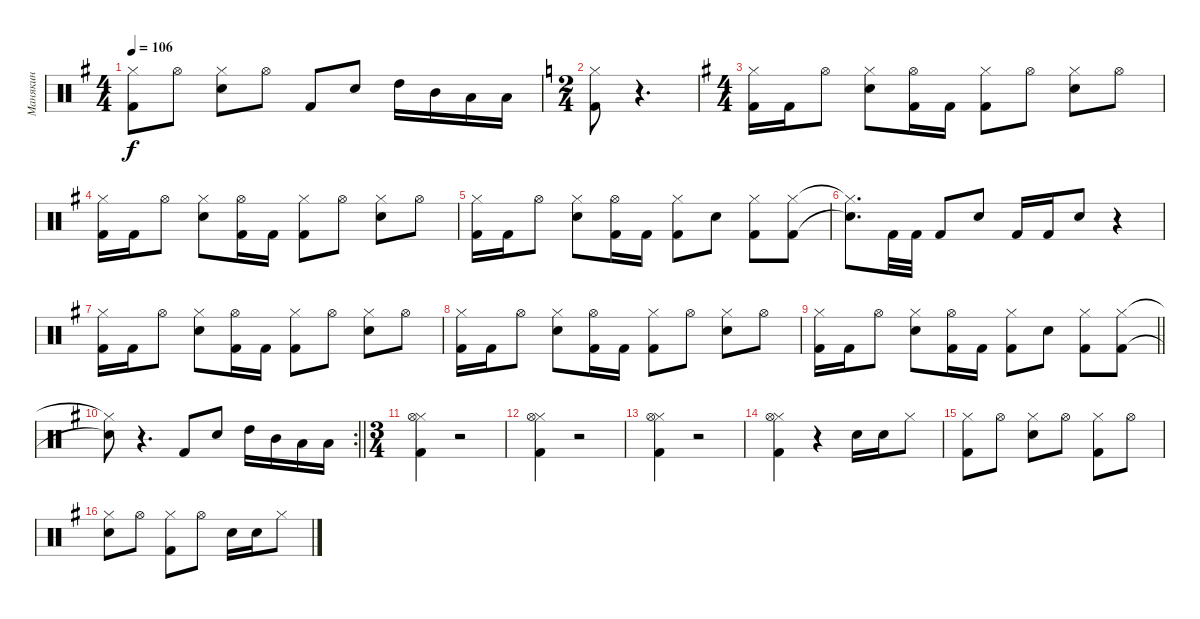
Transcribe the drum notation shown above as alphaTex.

\track ("Манякин" "Манякин") {instrument percussion}
\staff {score}
\articulation defaults
\ts (4 4)
\tempo 106
\clef neutral
\ks g
("Hi-Hat (closed)" "Kick (hit) 2").8{dy f} "Hi-Hat (open)".8 ("Hi-Hat (closed)" "Electric Snare (hit)").8 "Hi-Hat (open)".8 "Kick (hit) 2".8 "Electric Snare (hit)".8 "High Tom (hit)".16 "Mid Tom (hit)".16 "Low Tom (hit)".16 "Low Tom (hit)".16 |
\ts (2 4)
\ks c
("Hi-Hat (closed)" "Kick (hit) 2").8 r.4{d} |
\ts (4 4)
\ks g
("Hi-Hat (closed)" "Kick (hit) 2").16 "Kick (hit) 2".16 "Hi-Hat (open)".8 ("Hi-Hat (closed)" "Electric Snare (hit)").8 ("Kick (hit) 2" "Hi-Hat (open)").16 "Kick (hit) 2".16 ("Hi-Hat (closed)" "Kick (hit) 2").8 "Hi-Hat (open)".8 ("Hi-Hat (closed)" "Electric Snare (hit)").8 "Hi-Hat (open)".8 |
("Hi-Hat (closed)" "Kick (hit) 2").16 "Kick (hit) 2".16 "Hi-Hat (open)".8 ("Hi-Hat (closed)" "Electric Snare (hit)").8 ("Kick (hit) 2" "Hi-Hat (open)").16 "Kick (hit) 2".16 ("Hi-Hat (closed)" "Kick (hit) 2").8 "Hi-Hat (open)".8 ("Hi-Hat (closed)" "Electric Snare (hit)").8 "Hi-Hat (open)".8 |
("Hi-Hat (closed)" "Kick (hit) 2").16 "Kick (hit) 2".16 "Hi-Hat (open)".8 ("Hi-Hat (closed)" "Electric Snare (hit)").8 ("Kick (hit) 2" "Hi-Hat (open)").16 "Kick (hit) 2".16 ("Hi-Hat (closed)" "Kick (hit) 2").8 "Electric Snare (hit)".8 ("Hi-Hat (closed)" "Kick (hit) 2").8 ("Hi-Hat (closed)" "Kick (hit) 2").8 |
("Hi-Hat (closed)"{t} "Electric Snare (hit)"{t}).8{d} "Kick (hit) 2".32 "Kick (hit) 2".32 "Kick (hit) 2".8 "Electric Snare (hit)".8 "Kick (hit) 2".16 "Kick (hit) 2".16 "Electric Snare (hit)".8 r.4 |
("Hi-Hat (closed)" "Kick (hit) 2").16 "Kick (hit) 2".16 "Hi-Hat (open)".8 ("Hi-Hat (closed)" "Electric Snare (hit)").8 ("Kick (hit) 2" "Hi-Hat (open)").16 "Kick (hit) 2".16 ("Hi-Hat (closed)" "Kick (hit) 2").8 "Hi-Hat (open)".8 ("Hi-Hat (closed)" "Electric Snare (hit)").8 "Hi-Hat (open)".8 |
("Hi-Hat (closed)" "Kick (hit) 2").16 "Kick (hit) 2".16 "Hi-Hat (open)".8 ("Hi-Hat (closed)" "Electric Snare (hit)").8 ("Kick (hit) 2" "Hi-Hat (open)").16 "Kick (hit) 2".16 ("Hi-Hat (closed)" "Kick (hit) 2").8 "Hi-Hat (open)".8 ("Hi-Hat (closed)" "Electric Snare (hit)").8 "Hi-Hat (open)".8 |
\barLineRight lightlight
("Hi-Hat (closed)" "Kick (hit) 2").16 "Kick (hit) 2".16 "Hi-Hat (open)".8 ("Hi-Hat (closed)" "Electric Snare (hit)").8 ("Kick (hit) 2" "Hi-Hat (open)").16 "Kick (hit) 2".16 ("Hi-Hat (closed)" "Kick (hit) 2").8 "Electric Snare (hit)".8 ("Hi-Hat (closed)" "Kick (hit) 2").8 ("Hi-Hat (closed)" "Kick (hit) 2").8 |
\rc 2
\barLineRight lightlight
("Hi-Hat (closed)"{t} "Electric Snare (hit)"{t}).8 r.4{d} "Kick (hit) 2".8 "Electric Snare (hit)".8 "High Tom (hit)".16 "Mid Tom (hit)".16 "Low Tom (hit)".16 "Low Tom (hit)".16 |
\ts (3 4)
("Hi-Hat (closed)" "Kick (hit) 2" "Hi-Hat (open)").4 r.2 |
("Hi-Hat (closed)" "Kick (hit) 2" "Hi-Hat (open)").4 r.2 |
("Hi-Hat (closed)" "Kick (hit) 2" "Hi-Hat (open)").4 r.2 |
("Hi-Hat (closed)" "Kick (hit) 2" "Hi-Hat (open)").4 r.4 "Electric Snare (hit)".16 "Electric Snare (hit)".16 "Hi-Hat (closed)".8 |
("Hi-Hat (closed)" "Kick (hit) 2").8 "Hi-Hat (open)".8 ("Hi-Hat (closed)" "Electric Snare (hit)").8 "Hi-Hat (open)".8 ("Hi-Hat (closed)" "Kick (hit) 2").8 "Hi-Hat (open)".8 |
("Hi-Hat (closed)" "Electric Snare (hit)").8 "Hi-Hat (open)".8 ("Hi-Hat (closed)" "Kick (hit) 2").8 "Hi-Hat (open)".8 "Electric Snare (hit)".16 "Electric Snare (hit)".16 "Hi-Hat (closed)".8
